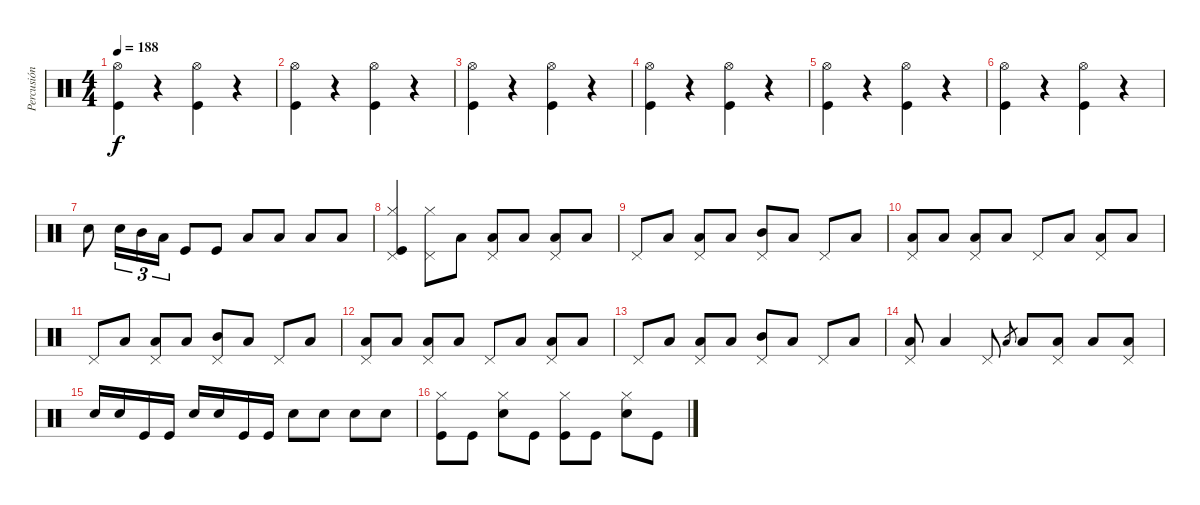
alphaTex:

\track ("Percusión" "Percusión") {instrument percussion}
\staff {score}
\articulation defaults
\ts (4 4)
\tempo 188
\clef neutral
\ks c
("Hi-Hat (open)" "Kick (hit)").4{dy f} r.4 ("Hi-Hat (open)" "Kick (hit)").4 r.4 |
("Hi-Hat (open)" "Kick (hit)").4 r.4 ("Hi-Hat (open)" "Kick (hit)").4 r.4 |
("Hi-Hat (open)" "Kick (hit)").4 r.4 ("Hi-Hat (open)" "Kick (hit)").4 r.4 |
("Hi-Hat (open)" "Kick (hit)").4 r.4 ("Hi-Hat (open)" "Kick (hit)").4 r.4 |
("Hi-Hat (open)" "Kick (hit)").4 r.4 ("Hi-Hat (open)" "Kick (hit)").4 r.4 |
("Hi-Hat (open)" "Kick (hit)").4 r.4 ("Hi-Hat (open)" "Kick (hit)").4 r.4 |
"Snare (hit) 2".8 "Snare (hit) 2".16{tu (3 2)} "Mid Tom (hit)".16{tu (3 2)} "Low Tom (hit)".16{tu (3 2)} "Kick (hit)".8 "Kick (hit)".8 "Low Tom (hit)".8 "Low Tom (hit)".8 "Low Tom (hit)".8 "Low Tom (hit)".8 |
("Hi-Hat (closed)" "Kick (hit)" "Pedal Hi-Hat (hit)").4 ("Hi-Hat (closed)" "Pedal Hi-Hat (hit)").8 "Low Tom (hit)".8 ("Low Tom (hit)" "Pedal Hi-Hat (hit)").8 "Low Tom (hit)".8 ("Low Tom (hit)" "Pedal Hi-Hat (hit)").8 "Low Tom (hit)".8 |
"Pedal Hi-Hat (hit)".8 "Low Tom (hit)".8 ("Low Tom (hit)" "Pedal Hi-Hat (hit)").8 "Low Tom (hit)".8 ("Mid Tom (hit)" "Pedal Hi-Hat (hit)").8 "Low Tom (hit)".8 "Pedal Hi-Hat (hit)".8 "Low Tom (hit)".8 |
("Low Tom (hit)" "Pedal Hi-Hat (hit)").8 "Low Tom (hit)".8 ("Low Tom (hit)" "Pedal Hi-Hat (hit)").8 "Low Tom (hit)".8 "Pedal Hi-Hat (hit)".8 "Low Tom (hit)".8 ("Low Tom (hit)" "Pedal Hi-Hat (hit)").8 "Low Tom (hit)".8 |
"Pedal Hi-Hat (hit)".8 "Low Tom (hit)".8 ("Low Tom (hit)" "Pedal Hi-Hat (hit)").8 "Low Tom (hit)".8 ("Mid Tom (hit)" "Pedal Hi-Hat (hit)").8 "Low Tom (hit)".8 "Pedal Hi-Hat (hit)".8 "Low Tom (hit)".8 |
("Low Tom (hit)" "Pedal Hi-Hat (hit)").8 "Low Tom (hit)".8 ("Low Tom (hit)" "Pedal Hi-Hat (hit)").8 "Low Tom (hit)".8 "Pedal Hi-Hat (hit)".8 "Low Tom (hit)".8 ("Low Tom (hit)" "Pedal Hi-Hat (hit)").8 "Low Tom (hit)".8 |
"Pedal Hi-Hat (hit)".8 "Low Tom (hit)".8 ("Low Tom (hit)" "Pedal Hi-Hat (hit)").8 "Low Tom (hit)".8 ("Mid Tom (hit)" "Pedal Hi-Hat (hit)").8 "Low Tom (hit)".8 "Pedal Hi-Hat (hit)".8 "Low Tom (hit)".8 |
("Low Tom (hit)" "Pedal Hi-Hat (hit)").8 "Low Tom (hit)".4 "Pedal Hi-Hat (hit)".8 "Low Tom (hit)".8{gr} "Low Tom (hit)".8 ("Low Tom (hit)" "Pedal Hi-Hat (hit)").8 "Low Tom (hit)".8 ("Low Tom (hit)" "Pedal Hi-Hat (hit)").8 |
"Snare (hit) 2".16 "Snare (hit) 2".16 "Kick (hit)".16 "Kick (hit)".16 "Snare (hit) 2".16 "Snare (hit) 2".16 "Kick (hit)".16 "Kick (hit)".16 "Snare (hit) 2".8 "Snare (hit) 2".8 "Snare (hit) 2".8 "Snare (hit) 2".8 |
("Hi-Hat (closed)" "Kick (hit)").8 "Kick (hit)".8 ("Hi-Hat (closed)" "Snare (hit) 2").8 "Kick (hit)".8 ("Hi-Hat (closed)" "Kick (hit)").8 "Kick (hit)".8 ("Hi-Hat (closed)" "Snare (hit) 2").8 "Kick (hit)".8
